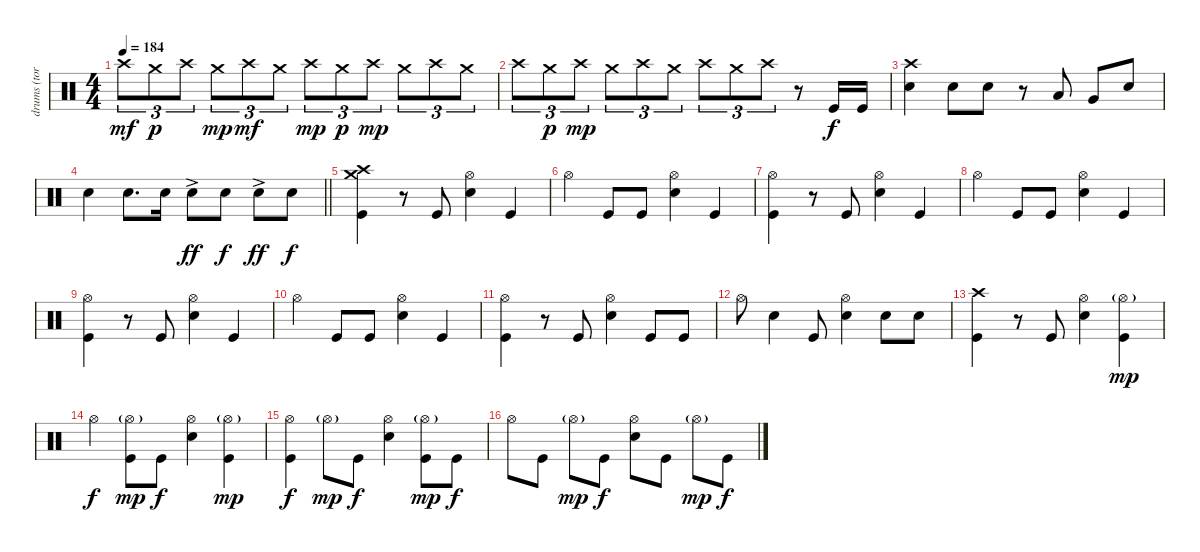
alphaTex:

\track ("drums (tora)" "drums (tor") {instrument percussion}
\staff {score}
\articulation defaults
\ts (4 4)
\tempo 184
\clef neutral
\ks c "Crash high (hit)".8{tu (3 2) dy mf} "Crash medium (hit)".8{tu (3 2) dy p} "Crash high (hit)".8{tu (3 2)} "Crash medium (hit)".8{tu (3 2) dy mp} "Crash high (hit)".8{tu (3 2) dy mf} "Crash medium (hit)".8{tu (3 2)} "Crash high (hit)".8{tu (3 2) dy mp} "Crash medium (hit)".8{tu (3 2) dy p} "Crash high (hit)".8{tu (3 2) dy mp} "Crash medium (hit)".8{tu (3 2)} "Crash high (hit)".8{tu (3 2)} "Crash medium (hit)".8{tu (3 2)}
|
"Crash high (hit)".8{tu (3 2)} "Crash medium (hit)".8{tu (3 2) dy p} "Crash high (hit)".8{tu (3 2) dy mp} "Crash medium (hit)".8{tu (3 2)} "Crash high (hit)".8{tu (3 2)} "Crash medium (hit)".8{tu (3 2)} "Crash high (hit)".8{tu (3 2)} "Crash medium (hit)".8{tu (3 2)} "Crash high (hit)".8{tu (3 2)} r.8 "Kick (hit)".16{dy f} "Kick (hit)".16 |
("Crash high (hit)" "Snare (hit) 2").4 "Snare (hit) 2".8 "Snare (hit) 2".8 r.8 "Low Tom (hit)".8 "Very Low Tom (hit)".8 "Snare (hit) 2".8 |
\barLineRight lightlight "Snare (hit) 2".4 "Snare (hit) 2".8{d} "Snare (hit) 2".16 "Snare (hit) 2"{ac}.8{dy ff} "Snare (hit) 2".8{dy f} "Snare (hit) 2"{ac}.8{dy ff} "Snare (hit) 2".8{dy f}
|
\section ("" "")
("Crash high (hit)" "Crash medium (hit)" "Kick (hit)").4 r.8 "Kick (hit)".8 ("Hi-Hat (open)" "Snare (hit) 2").4 "Kick (hit)".4 |
"Hi-Hat (open)".4 "Kick (hit)".8 "Kick (hit)".8 ("Hi-Hat (open)" "Snare (hit) 2").4 "Kick (hit)".4 |
("Hi-Hat (open)" "Kick (hit)").4 r.8 "Kick (hit)".8 ("Hi-Hat (open)" "Snare (hit) 2").4 "Kick (hit)".4 |
"Hi-Hat (open)".4 "Kick (hit)".8 "Kick (hit)".8 ("Hi-Hat (open)" "Snare (hit) 2").4 "Kick (hit)".4 |
("Hi-Hat (open)" "Kick (hit)").4 r.8 "Kick (hit)".8 ("Hi-Hat (open)" "Snare (hit) 2").4 "Kick (hit)".4 |
"Hi-Hat (open)".4 "Kick (hit)".8 "Kick (hit)".8 ("Hi-Hat (open)" "Snare (hit) 2").4 "Kick (hit)".4 |
("Hi-Hat (open)" "Kick (hit)").4 r.8 "Kick (hit)".8 ("Hi-Hat (open)" "Snare (hit) 2").4 "Kick (hit)".8 "Kick (hit)".8 |
"Hi-Hat (open)".8 "Snare (hit) 2".4 "Kick (hit)".8 ("Hi-Hat (open)" "Snare (hit) 2").4 "Snare (hit) 2".8 "Snare (hit) 2".8 |
("Crash high (hit)" "Kick (hit)").4 r.8 "Kick (hit)".8 ("Hi-Hat (open)" "Snare (hit) 2").4 ("Hi-Hat (open)"{g} "Kick (hit)").4{dy mp} |
"Hi-Hat (open)".4{dy f} ("Hi-Hat (open)"{g} "Kick (hit)").8{dy mp} "Kick (hit)".8{dy f} ("Hi-Hat (open)" "Snare (hit) 2").4 ("Hi-Hat (open)"{g} "Kick (hit)").4{dy mp} |
("Hi-Hat (open)" "Kick (hit)").4{dy f} "Hi-Hat (open)"{g}.8{dy mp} "Kick (hit)".8{dy f} ("Hi-Hat (open)" "Snare (hit) 2").4 ("Hi-Hat (open)"{g} "Kick (hit)").8{dy mp} "Kick (hit)".8{dy f} |
"Hi-Hat (open)".8 "Kick (hit)".8 "Hi-Hat (open)"{g}.8{dy mp} "Kick (hit)".8{dy f} ("Hi-Hat (open)" "Snare (hit) 2").8 "Kick (hit)".8 "Hi-Hat (open)"{g}.8{dy mp} "Kick (hit)".8{dy f}
